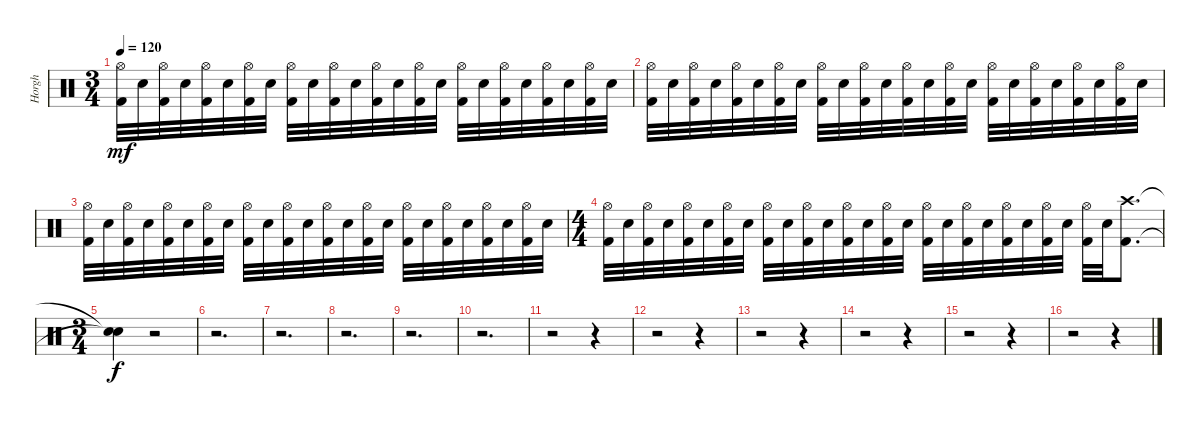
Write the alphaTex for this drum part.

\track ("Horgh" "Horgh") {instrument percussion}
\staff {score}
\articulation defaults
\ts (3 4)
\tempo 120
\clef neutral
\ks c
("Hi-Hat (open)" "Kick (hit) 2").32{dy mf} "Snare (hit) 2".32 ("Hi-Hat (open)" "Kick (hit) 2").32 "Snare (hit) 2".32 ("Hi-Hat (open)" "Kick (hit) 2").32 "Snare (hit) 2".32 ("Hi-Hat (open)" "Kick (hit) 2").32 "Snare (hit) 2".32 ("Hi-Hat (open)" "Kick (hit) 2").32 "Snare (hit) 2".32 ("Hi-Hat (open)" "Kick (hit) 2").32 "Snare (hit) 2".32 ("Hi-Hat (open)" "Kick (hit) 2").32 "Snare (hit) 2".32 ("Hi-Hat (open)" "Kick (hit) 2").32 "Snare (hit) 2".32 ("Hi-Hat (open)" "Kick (hit) 2").32 "Snare (hit) 2".32 ("Hi-Hat (open)" "Kick (hit) 2").32 "Snare (hit) 2".32 ("Hi-Hat (open)" "Kick (hit) 2").32 "Snare (hit) 2".32 ("Hi-Hat (open)" "Kick (hit) 2").32 "Snare (hit) 2".32 |
("Hi-Hat (open)" "Kick (hit) 2").32 "Snare (hit) 2".32 ("Hi-Hat (open)" "Kick (hit) 2").32 "Snare (hit) 2".32 ("Hi-Hat (open)" "Kick (hit) 2").32 "Snare (hit) 2".32 ("Hi-Hat (open)" "Kick (hit) 2").32 "Snare (hit) 2".32 ("Hi-Hat (open)" "Kick (hit) 2").32 "Snare (hit) 2".32 ("Hi-Hat (open)" "Kick (hit) 2").32 "Snare (hit) 2".32 ("Hi-Hat (open)" "Kick (hit) 2").32 "Snare (hit) 2".32 ("Hi-Hat (open)" "Kick (hit) 2").32 "Snare (hit) 2".32 ("Hi-Hat (open)" "Kick (hit) 2").32 "Snare (hit) 2".32 ("Hi-Hat (open)" "Kick (hit) 2").32 "Snare (hit) 2".32 ("Hi-Hat (open)" "Kick (hit) 2").32 "Snare (hit) 2".32 ("Hi-Hat (open)" "Kick (hit) 2").32 "Snare (hit) 2".32 |
("Hi-Hat (open)" "Kick (hit) 2").32 "Snare (hit) 2".32 ("Hi-Hat (open)" "Kick (hit) 2").32 "Snare (hit) 2".32 ("Hi-Hat (open)" "Kick (hit) 2").32 "Snare (hit) 2".32 ("Hi-Hat (open)" "Kick (hit) 2").32 "Snare (hit) 2".32 ("Hi-Hat (open)" "Kick (hit) 2").32 "Snare (hit) 2".32 ("Hi-Hat (open)" "Kick (hit) 2").32 "Snare (hit) 2".32 ("Hi-Hat (open)" "Kick (hit) 2").32 "Snare (hit) 2".32 ("Hi-Hat (open)" "Kick (hit) 2").32 "Snare (hit) 2".32 ("Hi-Hat (open)" "Kick (hit) 2").32 "Snare (hit) 2".32 ("Hi-Hat (open)" "Kick (hit) 2").32 "Snare (hit) 2".32 ("Hi-Hat (open)" "Kick (hit) 2").32 "Snare (hit) 2".32 ("Hi-Hat (open)" "Kick (hit) 2").32 "Snare (hit) 2".32 |
\ts (4 4)
("Hi-Hat (open)" "Kick (hit) 2").32 "Snare (hit) 2".32 ("Hi-Hat (open)" "Kick (hit) 2").32 "Snare (hit) 2".32 ("Hi-Hat (open)" "Kick (hit) 2").32 "Snare (hit) 2".32 ("Hi-Hat (open)" "Kick (hit) 2").32 "Snare (hit) 2".32 ("Hi-Hat (open)" "Kick (hit) 2").32 "Snare (hit) 2".32 ("Hi-Hat (open)" "Kick (hit) 2").32 "Snare (hit) 2".32 ("Hi-Hat (open)" "Kick (hit) 2").32 "Snare (hit) 2".32 ("Hi-Hat (open)" "Kick (hit) 2").32 "Snare (hit) 2".32 ("Hi-Hat (open)" "Kick (hit) 2").32 "Snare (hit) 2".32 ("Hi-Hat (open)" "Kick (hit) 2").32 "Snare (hit) 2".32 ("Hi-Hat (open)" "Kick (hit) 2").32 "Snare (hit) 2".32 ("Hi-Hat (open)" "Kick (hit) 2").32 "Snare (hit) 2".32 ("Hi-Hat (open)" "Kick (hit) 2").32 "Snare (hit) 2".32 ("Crash high (hit)" "Kick (hit) 2").8{d} |
\ts (3 4)
("Snare (hit)"{t} "Snare (hit)"{t}).4{dy f} r.2 |
r.2{d} |
r.2{d} |
r.2{d} |
r.2{d} |
r.2{d} |
r.2 r.4 |
r.2 r.4 |
r.2 r.4 |
r.2 r.4 |
r.2 r.4 |
r.2 r.4
